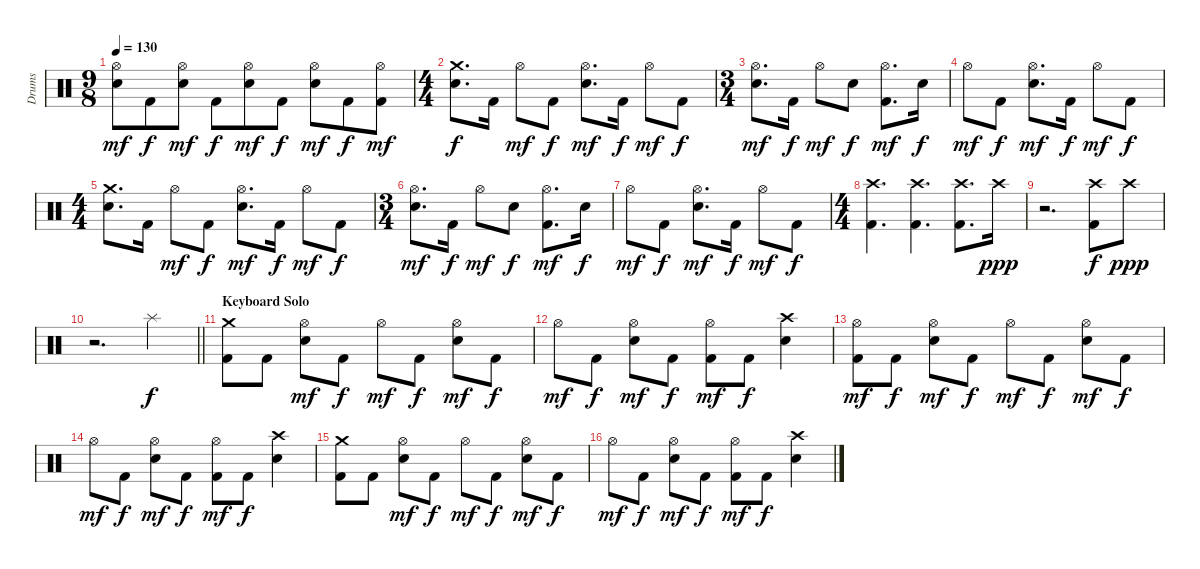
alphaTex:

\track ("Drums" "Drums") {instrument percussion}
\staff {score}
\articulation defaults
\ts (9 8)
\tempo 130
\clef neutral
\ks c
("Hi-Hat (open)" "Electric Snare (hit)").8{dy mf} "Kick (hit) 2".8{dy f} ("Hi-Hat (open)" "Electric Snare (hit)").8{dy mf} "Kick (hit) 2".8{dy f} ("Hi-Hat (open)" "Electric Snare (hit)").8{dy mf} "Kick (hit) 2".8{dy f} ("Hi-Hat (open)" "Electric Snare (hit)").8{dy mf} "Kick (hit) 2".8{dy f} ("Kick (hit) 2" "Hi-Hat (open)").8{dy mf} |
\ts (4 4)
("Crash medium (hit)" "Electric Snare (hit)").8{d dy f} "Kick (hit) 2".16 "Hi-Hat (open)".8{dy mf} "Kick (hit) 2".8{dy f} ("Hi-Hat (open)" "Electric Snare (hit)").8{d dy mf} "Kick (hit) 2".16{dy f} "Hi-Hat (open)".8{dy mf} "Kick (hit) 2".8{dy f} |
\ts (3 4)
("Hi-Hat (open)" "Electric Snare (hit)").8{d dy mf} "Kick (hit) 2".16{dy f} "Hi-Hat (open)".8{dy mf} "Electric Snare (hit)".8{dy f} ("Kick (hit) 2" "Hi-Hat (open)").8{d dy mf} "Electric Snare (hit)".16{dy f} |
"Hi-Hat (open)".8{dy mf} "Kick (hit) 2".8{dy f} ("Hi-Hat (open)" "Electric Snare (hit)").8{d dy mf} "Kick (hit) 2".16{dy f} "Hi-Hat (open)".8{dy mf} "Kick (hit) 2".8{dy f} |
\ts (4 4)
("Crash medium (hit)" "Electric Snare (hit)").8{d} "Kick (hit) 2".16 "Hi-Hat (open)".8{dy mf} "Kick (hit) 2".8{dy f} ("Hi-Hat (open)" "Electric Snare (hit)").8{d dy mf} "Kick (hit) 2".16{dy f} "Hi-Hat (open)".8{dy mf} "Kick (hit) 2".8{dy f} |
\ts (3 4)
("Hi-Hat (open)" "Electric Snare (hit)").8{d dy mf} "Kick (hit) 2".16{dy f} "Hi-Hat (open)".8{dy mf} "Electric Snare (hit)".8{dy f} ("Kick (hit) 2" "Hi-Hat (open)").8{d dy mf} "Electric Snare (hit)".16{dy f} |
"Hi-Hat (open)".8{dy mf} "Kick (hit) 2".8{dy f} ("Hi-Hat (open)" "Electric Snare (hit)").8{d dy mf} "Kick (hit) 2".16{dy f} "Hi-Hat (open)".8{dy mf} "Kick (hit) 2".8{dy f} |
\ts (4 4)
("Kick (hit) 2" "Crash high (hit)").4{d} ("Kick (hit) 2" "Crash high (hit)").4{d} ("Kick (hit) 2" "Crash high (hit)").8{d} "Crash high (hit)".16{dy ppp} |
r.2{d} ("Kick (hit) 2" "Crash high (hit)").8{dy f} "Crash high (hit)".8{dy ppp} |
\barLineRight lightlight
r.2{d} "Splash (hit)".4{dy f} |
\section ("" "Keyboard Solo")
("Kick (hit) 2" "Crash medium (hit)").8 "Kick (hit) 2".8 ("Hi-Hat (open)" "Electric Snare (hit)").8{dy mf} "Kick (hit) 2".8{dy f} "Hi-Hat (open)".8{dy mf} "Kick (hit) 2".8{dy f} ("Hi-Hat (open)" "Electric Snare (hit)").8{dy mf} "Kick (hit) 2".8{dy f} |
"Hi-Hat (open)".8{dy mf} "Kick (hit) 2".8{dy f} ("Hi-Hat (open)" "Electric Snare (hit)").8{dy mf} "Kick (hit) 2".8{dy f} ("Kick (hit) 2" "Hi-Hat (open)").8{dy mf} "Kick (hit) 2".8{dy f} ("Crash high (hit)" "Electric Snare (hit)").4 |
("Kick (hit) 2" "Hi-Hat (open)").8{dy mf} "Kick (hit) 2".8{dy f} ("Hi-Hat (open)" "Electric Snare (hit)").8{dy mf} "Kick (hit) 2".8{dy f} "Hi-Hat (open)".8{dy mf} "Kick (hit) 2".8{dy f} ("Hi-Hat (open)" "Electric Snare (hit)").8{dy mf} "Kick (hit) 2".8{dy f} |
"Hi-Hat (open)".8{dy mf} "Kick (hit) 2".8{dy f} ("Hi-Hat (open)" "Electric Snare (hit)").8{dy mf} "Kick (hit) 2".8{dy f} ("Kick (hit) 2" "Hi-Hat (open)").8{dy mf} "Kick (hit) 2".8{dy f} ("Crash high (hit)" "Electric Snare (hit)").4 |
("Kick (hit) 2" "Crash medium (hit)").8 "Kick (hit) 2".8 ("Hi-Hat (open)" "Electric Snare (hit)").8{dy mf} "Kick (hit) 2".8{dy f} "Hi-Hat (open)".8{dy mf} "Kick (hit) 2".8{dy f} ("Hi-Hat (open)" "Electric Snare (hit)").8{dy mf} "Kick (hit) 2".8{dy f} |
"Hi-Hat (open)".8{dy mf} "Kick (hit) 2".8{dy f} ("Hi-Hat (open)" "Electric Snare (hit)").8{dy mf} "Kick (hit) 2".8{dy f} ("Kick (hit) 2" "Hi-Hat (open)").8{dy mf} "Kick (hit) 2".8{dy f} ("Crash high (hit)" "Electric Snare (hit)").4
